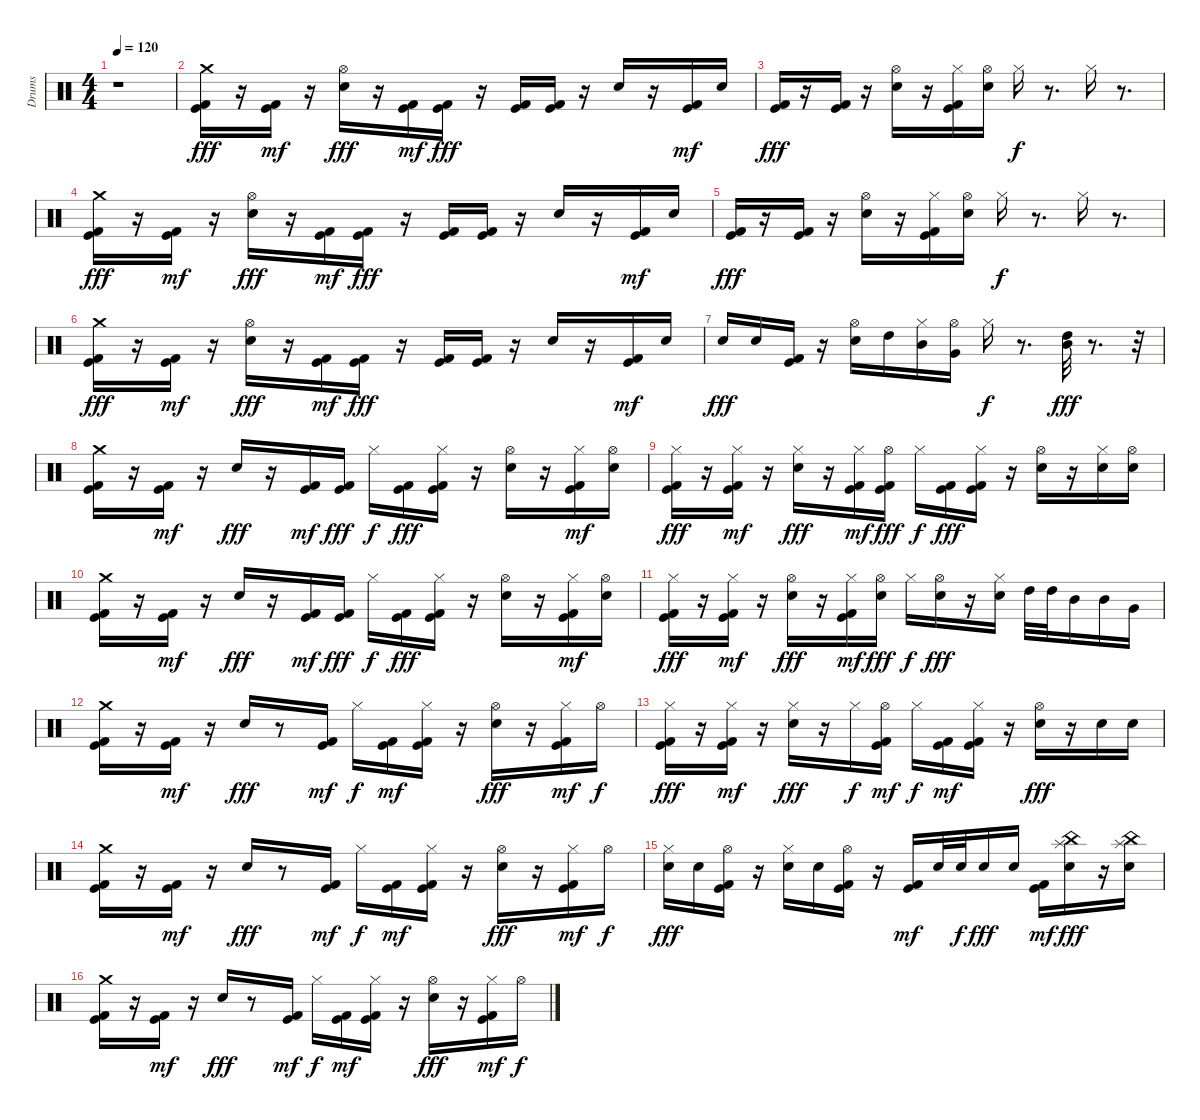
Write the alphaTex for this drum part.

\track ("Drums" "Drums") {instrument percussion}
\staff {score}
\articulation defaults
\ts (4 4)
\tempo 120
\clef neutral
\ks c
r.1{dy fff} |
("Kick (hit)" "Kick (hit) 2" "Crash medium (hit)").16 r.16 ("Kick (hit)" "Kick (hit) 2").16{dy mf} r.16 ("Electric Snare (hit)" "Hi-Hat (open)").16{dy fff} r.16 ("Kick (hit)" "Kick (hit) 2").16{dy mf} ("Kick (hit)" "Kick (hit) 2").16{dy fff} r.16 ("Kick (hit)" "Kick (hit) 2").16 ("Kick (hit)" "Kick (hit) 2").16 r.16 "Electric Snare (hit)".16 r.16 ("Kick (hit)" "Kick (hit) 2").16{dy mf} "Electric Snare (hit)".16 |
("Kick (hit)" "Kick (hit) 2").16{dy fff} r.16 ("Kick (hit)" "Kick (hit) 2").16 r.16 ("Electric Snare (hit)" "Hi-Hat (open)").16 r.16 ("Kick (hit)" "Kick (hit) 2" "Hi-Hat (closed)").16 ("Electric Snare (hit)" "Hi-Hat (open)").16 "Hi-Hat (closed)".16{dy f} r.8{d} "Hi-Hat (closed)".16 r.8{d} |
("Kick (hit)" "Kick (hit) 2" "Crash medium (hit)").16{dy fff} r.16 ("Kick (hit)" "Kick (hit) 2").16{dy mf} r.16 ("Electric Snare (hit)" "Hi-Hat (open)").16{dy fff} r.16 ("Kick (hit)" "Kick (hit) 2").16{dy mf} ("Kick (hit)" "Kick (hit) 2").16{dy fff} r.16 ("Kick (hit)" "Kick (hit) 2").16 ("Kick (hit)" "Kick (hit) 2").16 r.16 "Electric Snare (hit)".16 r.16 ("Kick (hit)" "Kick (hit) 2").16{dy mf} "Electric Snare (hit)".16 |
("Kick (hit)" "Kick (hit) 2").16{dy fff} r.16 ("Kick (hit)" "Kick (hit) 2").16 r.16 ("Electric Snare (hit)" "Hi-Hat (open)").16 r.16 ("Kick (hit)" "Kick (hit) 2" "Hi-Hat (closed)").16 ("Electric Snare (hit)" "Hi-Hat (open)").16 "Hi-Hat (closed)".16{dy f} r.8{d} "Hi-Hat (closed)".16 r.8{d} |
("Kick (hit)" "Kick (hit) 2" "Crash medium (hit)").16{dy fff} r.16 ("Kick (hit)" "Kick (hit) 2").16{dy mf} r.16 ("Electric Snare (hit)" "Hi-Hat (open)").16{dy fff} r.16 ("Kick (hit)" "Kick (hit) 2").16{dy mf} ("Kick (hit)" "Kick (hit) 2").16{dy fff} r.16 ("Kick (hit)" "Kick (hit) 2").16 ("Kick (hit)" "Kick (hit) 2").16 r.16 "Electric Snare (hit)".16 r.16 ("Kick (hit)" "Kick (hit) 2").16{dy mf} "Electric Snare (hit)".16 |
"Electric Snare (hit)".16{dy fff} "Electric Snare (hit)".16 ("Kick (hit)" "Kick (hit) 2").16 r.16 ("Electric Snare (hit)" "Hi-Hat (open)").16 "High Tom (hit)".16 ("Hi-Hat (closed)" "Mid Tom (hit)").16 ("Very Low Tom (hit)" "Hi-Hat (open)").16 "Hi-Hat (closed)".16{dy f} r.8{d} ("High Tom (hit)" "Mid Tom (hit)").32{dy fff} r.8{d} r.32 |
("Kick (hit)" "Kick (hit) 2" "Crash medium (hit)").16 r.16 ("Kick (hit)" "Kick (hit) 2").16{dy mf} r.16 "Electric Snare (hit)".16{dy fff} r.16 ("Kick (hit)" "Kick (hit) 2").16{dy mf} ("Kick (hit)" "Kick (hit) 2").16{dy fff} "Hi-Hat (closed)".16{dy f} ("Kick (hit)" "Kick (hit) 2").16{dy fff} ("Kick (hit)" "Kick (hit) 2" "Hi-Hat (closed)").16 r.16 ("Electric Snare (hit)" "Hi-Hat (open)").16 r.16 ("Kick (hit)" "Kick (hit) 2" "Hi-Hat (closed)").16{dy mf} ("Electric Snare (hit)" "Hi-Hat (open)").16 |
("Kick (hit)" "Kick (hit) 2" "Hi-Hat (closed)").16{dy fff} r.16 ("Kick (hit)" "Kick (hit) 2" "Hi-Hat (closed)").16{dy mf} r.16 ("Electric Snare (hit)" "Hi-Hat (closed)").16{dy fff} r.16 ("Kick (hit)" "Kick (hit) 2" "Hi-Hat (closed)").16{dy mf} ("Kick (hit)" "Kick (hit) 2" "Hi-Hat (open)").16{dy fff} "Hi-Hat (closed)".16{dy f} ("Kick (hit)" "Kick (hit) 2").16{dy fff} ("Kick (hit)" "Kick (hit) 2" "Hi-Hat (closed)").16 r.16 ("Electric Snare (hit)" "Hi-Hat (open)").16 r.16 ("Electric Snare (hit)" "Hi-Hat (closed)").16 ("Electric Snare (hit)" "Hi-Hat (open)").16 |
("Kick (hit)" "Kick (hit) 2" "Crash medium (hit)").16 r.16 ("Kick (hit)" "Kick (hit) 2").16{dy mf} r.16 "Electric Snare (hit)".16{dy fff} r.16 ("Kick (hit)" "Kick (hit) 2").16{dy mf} ("Kick (hit)" "Kick (hit) 2").16{dy fff} "Hi-Hat (closed)".16{dy f} ("Kick (hit)" "Kick (hit) 2").16{dy fff} ("Kick (hit)" "Kick (hit) 2" "Hi-Hat (closed)").16 r.16 ("Electric Snare (hit)" "Hi-Hat (open)").16 r.16 ("Kick (hit)" "Kick (hit) 2" "Hi-Hat (closed)").16{dy mf} ("Electric Snare (hit)" "Hi-Hat (open)").16 |
("Kick (hit)" "Kick (hit) 2" "Hi-Hat (closed)").16{dy fff} r.16 ("Kick (hit)" "Kick (hit) 2" "Hi-Hat (closed)").16{dy mf} r.16 ("Electric Snare (hit)" "Hi-Hat (open)").16{dy fff} r.16 ("Kick (hit)" "Kick (hit) 2" "Hi-Hat (closed)").16{dy mf} ("Electric Snare (hit)" "Hi-Hat (open)").16{dy fff} "Hi-Hat (closed)".16{dy f} ("Electric Snare (hit)" "Hi-Hat (open)").16{dy fff} r.16 ("Electric Snare (hit)" "Hi-Hat (closed)").16 "High Tom (hit)".32 "High Tom (hit)".32 "Mid Tom (hit)".16 "Mid Tom (hit)".16 "Very Low Tom (hit)".16 |
("Kick (hit)" "Kick (hit) 2" "Crash medium (hit)").16 r.16 ("Kick (hit)" "Kick (hit) 2").16{dy mf} r.16 "Electric Snare (hit)".16{dy fff} r.8 ("Kick (hit)" "Kick (hit) 2").16{dy mf} "Hi-Hat (closed)".16{dy f} ("Kick (hit)" "Kick (hit) 2").16{dy mf} ("Kick (hit)" "Kick (hit) 2" "Hi-Hat (closed)").16 r.16 ("Electric Snare (hit)" "Hi-Hat (open)").16{dy fff} r.16 ("Kick (hit)" "Kick (hit) 2" "Hi-Hat (closed)").16{dy mf} "Hi-Hat (open)".16{dy f} |
("Kick (hit)" "Kick (hit) 2" "Hi-Hat (closed)").16{dy fff} r.16 ("Kick (hit)" "Kick (hit) 2" "Hi-Hat (closed)").16{dy mf} r.16 ("Electric Snare (hit)" "Hi-Hat (closed)").16{dy fff} r.16 "Hi-Hat (closed)".16{dy f} ("Kick (hit)" "Kick (hit) 2" "Hi-Hat (open)").16{dy mf} "Hi-Hat (closed)".16{dy f} ("Kick (hit)" "Kick (hit) 2").16{dy mf} ("Kick (hit)" "Kick (hit) 2" "Hi-Hat (closed)").16 r.16 ("Electric Snare (hit)" "Hi-Hat (open)").16{dy fff} r.16 "Electric Snare (hit)".16 "Electric Snare (hit)".16 |
("Kick (hit)" "Kick (hit) 2" "Crash medium (hit)").16 r.16 ("Kick (hit)" "Kick (hit) 2").16{dy mf} r.16 "Electric Snare (hit)".16{dy fff} r.8 ("Kick (hit)" "Kick (hit) 2").16{dy mf} "Hi-Hat (closed)".16{dy f} ("Kick (hit)" "Kick (hit) 2").16{dy mf} ("Kick (hit)" "Kick (hit) 2" "Hi-Hat (closed)").16 r.16 ("Electric Snare (hit)" "Hi-Hat (open)").16{dy fff} r.16 ("Kick (hit)" "Kick (hit) 2" "Hi-Hat (closed)").16{dy mf} "Hi-Hat (open)".16{dy f} |
("Electric Snare (hit)" "Hi-Hat (closed)").16{dy fff} "Electric Snare (hit)".16 ("Kick (hit)" "Kick (hit) 2" "Hi-Hat (open)").16 r.16 ("Electric Snare (hit)" "Hi-Hat (closed)").16 "Electric Snare (hit)".16 ("Kick (hit)" "Kick (hit) 2" "Hi-Hat (open)").16 r.16 ("Kick (hit)" "Kick (hit) 2").16{dy mf} "Electric Snare (hit)".32 "Electric Snare (hit)".32{dy f} "Electric Snare (hit)".16{dy fff} "Electric Snare (hit)".16 ("Kick (hit)" "Kick (hit) 2").16{dy mf} ("Electric Snare (hit)" "China (hit)" "Splash (hit)").16{dy fff} r.16 ("Electric Snare (hit)" "China (hit)" "Splash (hit)").16 |
("Kick (hit)" "Kick (hit) 2" "Crash medium (hit)").16 r.16 ("Kick (hit)" "Kick (hit) 2").16{dy mf} r.16 "Electric Snare (hit)".16{dy fff} r.8 ("Kick (hit)" "Kick (hit) 2").16{dy mf} "Hi-Hat (closed)".16{dy f} ("Kick (hit)" "Kick (hit) 2").16{dy mf} ("Kick (hit)" "Kick (hit) 2" "Hi-Hat (closed)").16 r.16 ("Electric Snare (hit)" "Hi-Hat (open)").16{dy fff} r.16 ("Kick (hit)" "Kick (hit) 2" "Hi-Hat (closed)").16{dy mf} "Hi-Hat (open)".16{dy f}
